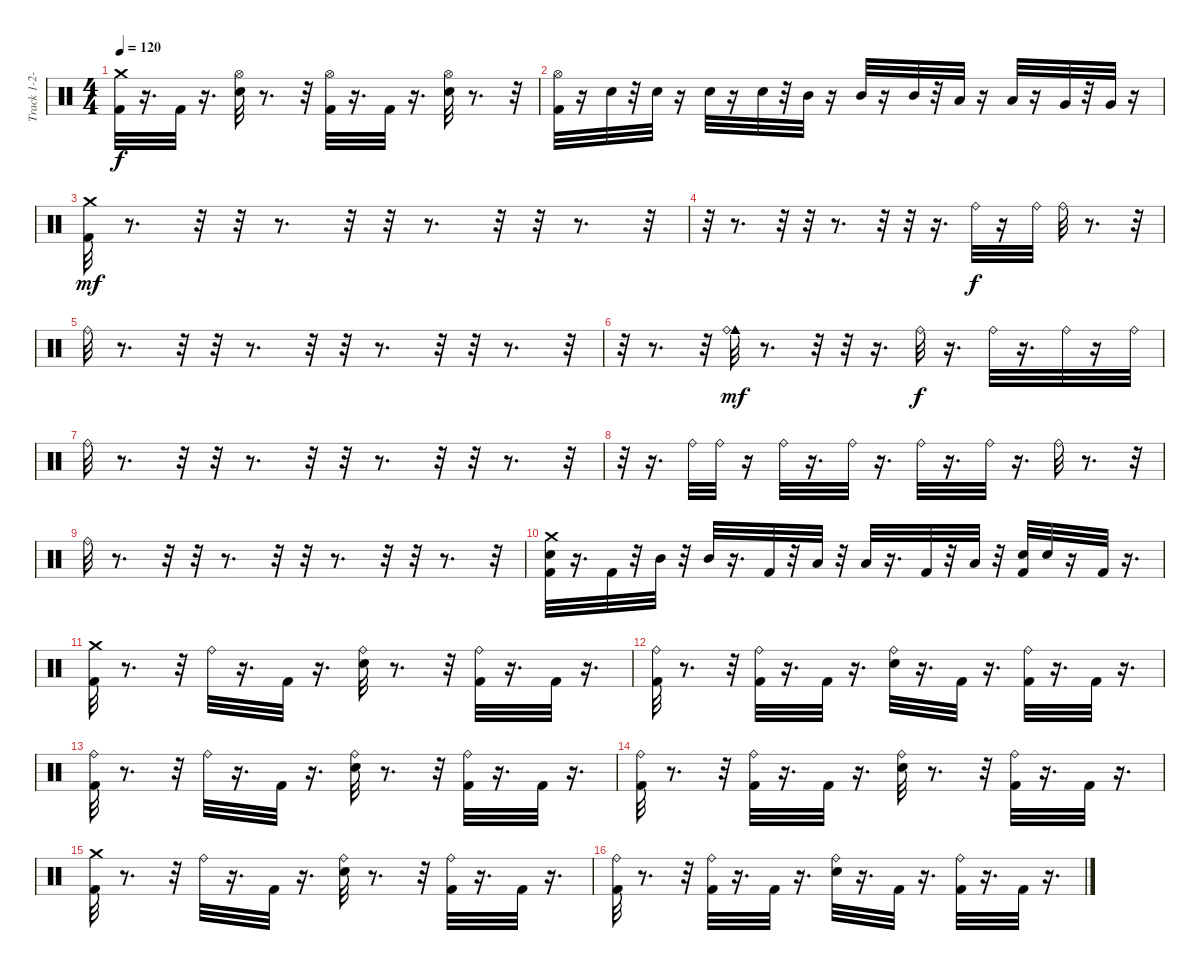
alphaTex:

\track ("Track 1-2-3-4" "Track 1-2-") {instrument percussion}
\staff {score}
\articulation defaults
\ts (4 4)
\tempo 120
\clef neutral
\ks c
("Crash medium (hit)" "Kick (hit) 2").32{dy f} r.16{d} "Kick (hit) 2".32 r.16{d} ("Hi-Hat (open)" "Electric Snare (hit)").32 r.8{d} r.32 ("Hi-Hat (open)" "Kick (hit) 2").32 r.16{d} "Kick (hit) 2".32 r.16{d} ("Hi-Hat (open)" "Electric Snare (hit)").32 r.8{d} r.32 |
("Hi-Hat (open)" "Kick (hit) 2").32 r.16 "Electric Snare (hit)".32 r.32 "Electric Snare (hit)".32 r.16 "Electric Snare (hit)".32 r.16 "Electric Snare (hit)".32 r.32 "Mid Tom (hit)".32 r.16 "Mid Tom (hit)".32 r.16 "Mid Tom (hit)".32 r.32 "Low Tom (hit)".32 r.16 "Low Tom (hit)".32 r.16 "Very Low Tom (hit)".32 r.32 "Very Low Tom (hit)".32 r.16 |
("Crash medium (hit)" "Kick (hit) 2").32{dy mf} r.8{d} r.32 r.32 r.8{d} r.32 r.32 r.8{d} r.32 r.32 r.8{d} r.32 |
r.32 r.8{d} r.32 r.32 r.8{d} r.32 r.32 r.16{d} "Ride (bell)".32{dy f} r.16 "Ride (bell)".32 "Ride (bell)".32 r.8{d} r.32 |
"Ride (bell)".32 r.8{d} r.32 r.32 r.8{d} r.32 r.32 r.8{d} r.32 r.32 r.8{d} r.32 |
r.32 r.8{d} r.32 ("Cowbell medium (hit)" "Ride (bell)").32{dy mf} r.8{d} r.32 r.32 r.16{d} "Ride (bell)".32{dy f} r.16{d} "Ride (bell)".32 r.16{d} "Ride (bell)".32 r.16 "Ride (bell)".32 |
"Ride (bell)".32 r.8{d} r.32 r.32 r.8{d} r.32 r.32 r.8{d} r.32 r.32 r.8{d} r.32 |
r.32 r.16{d} "Ride (bell)".32 "Ride (bell)".32 r.16 "Ride (bell)".32 r.16{d} "Ride (bell)".32 r.16{d} "Ride (bell)".32 r.16{d} "Ride (bell)".32 r.16{d} "Ride (bell)".32 r.8{d} r.32 |
"Ride (bell)".32 r.8{d} r.32 r.32 r.8{d} r.32 r.32 r.8{d} r.32 r.32 r.8{d} r.32 |
("Crash medium (hit)" "Kick (hit) 2" "Electric Snare (hit)").32 r.16{d} "Kick (hit) 2".32 r.32 "Mid Tom (hit)".32 r.32 "Mid Tom (hit)".32 r.16{d} "Kick (hit) 2".32 r.32 "Low Tom (hit)".32 r.32 "Low Tom (hit)".32 r.16{d} "Kick (hit) 2".32 r.32 "Low Tom (hit)".32 r.32 ("Kick (hit) 2" "Electric Snare (hit)").32 "Electric Snare (hit)".32 r.16 "Kick (hit) 2".32 r.16{d} |
("Crash medium (hit)" "Kick (hit) 2").32 r.8{d} r.32 "Ride (bell)".32 r.16{d} "Kick (hit) 2".32 r.16{d} ("Ride (bell)" "Electric Snare (hit)").32 r.8{d} r.32 ("Ride (bell)" "Kick (hit) 2").32 r.16{d} "Kick (hit) 2".32 r.16{d} |
("Ride (bell)" "Kick (hit) 2").32 r.8{d} r.32 ("Ride (bell)" "Kick (hit) 2").32 r.16{d} "Kick (hit) 2".32 r.16{d} ("Ride (bell)" "Electric Snare (hit)").32 r.16{d} "Kick (hit) 2".32 r.16{d} ("Ride (bell)" "Kick (hit) 2").32 r.16{d} "Kick (hit) 2".32 r.16{d} |
("Ride (bell)" "Kick (hit) 2").32 r.8{d} r.32 "Ride (bell)".32 r.16{d} "Kick (hit) 2".32 r.16{d} ("Ride (bell)" "Electric Snare (hit)").32 r.8{d} r.32 ("Ride (bell)" "Kick (hit) 2").32 r.16{d} "Kick (hit) 2".32 r.16{d} |
("Ride (bell)" "Kick (hit) 2").32 r.8{d} r.32 ("Ride (bell)" "Kick (hit) 2").32 r.16{d} "Kick (hit) 2".32 r.16{d} ("Ride (bell)" "Electric Snare (hit)").32 r.8{d} r.32 ("Ride (bell)" "Kick (hit) 2").32 r.16{d} "Kick (hit) 2".32 r.16{d} |
("Crash medium (hit)" "Kick (hit) 2").32 r.8{d} r.32 "Ride (bell)".32 r.16{d} "Kick (hit) 2".32 r.16{d} ("Ride (bell)" "Electric Snare (hit)").32 r.8{d} r.32 ("Ride (bell)" "Kick (hit) 2").32 r.16{d} "Kick (hit) 2".32 r.16{d} |
("Ride (bell)" "Kick (hit) 2").32 r.8{d} r.32 ("Ride (bell)" "Kick (hit) 2").32 r.16{d} "Kick (hit) 2".32 r.16{d} ("Ride (bell)" "Electric Snare (hit)").32 r.16{d} "Kick (hit) 2".32 r.16{d} ("Ride (bell)" "Kick (hit) 2").32 r.16{d} "Kick (hit) 2".32 r.16{d}
